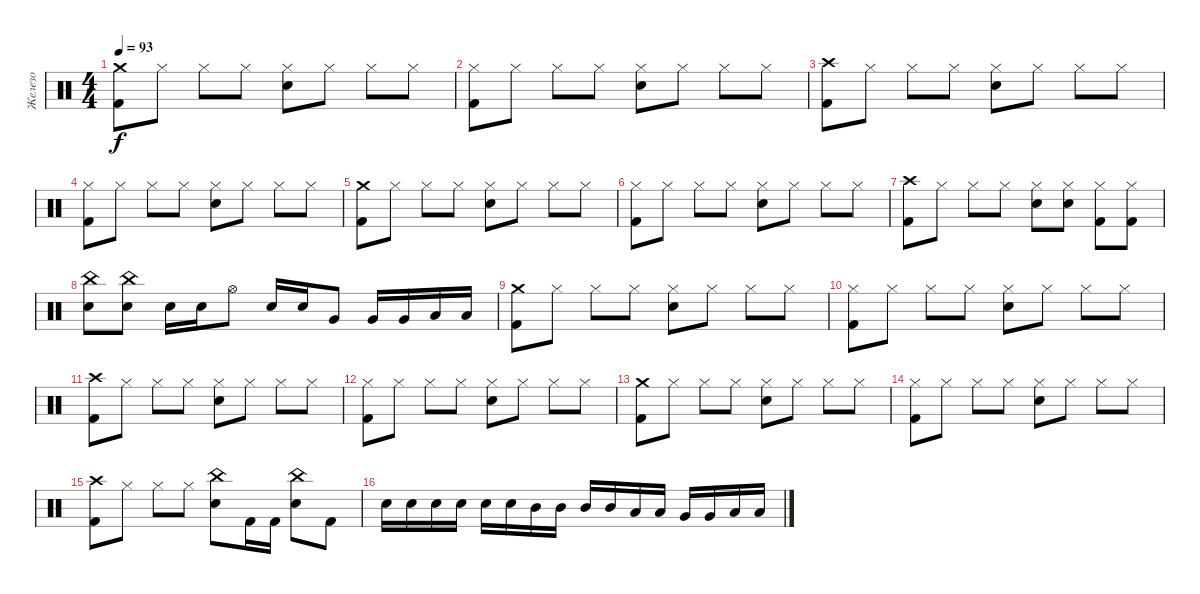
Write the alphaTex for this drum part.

\track ("Железо" "Железо") {instrument percussion}
\staff {score}
\articulation defaults
\ts (4 4)
\tempo 93
\clef neutral
\ks c
("Crash medium (hit)" "Kick (hit) 2").8{dy f} "Hi-Hat (closed)".8 "Hi-Hat (closed)".8 "Hi-Hat (closed)".8 ("Hi-Hat (closed)" "Electric Snare (hit)").8 "Hi-Hat (closed)".8 "Hi-Hat (closed)".8 "Hi-Hat (closed)".8 |
("Hi-Hat (closed)" "Kick (hit) 2").8 "Hi-Hat (closed)".8 "Hi-Hat (closed)".8 "Hi-Hat (closed)".8 ("Hi-Hat (closed)" "Electric Snare (hit)").8 "Hi-Hat (closed)".8 "Hi-Hat (closed)".8 "Hi-Hat (closed)".8 |
("Crash high (hit)" "Kick (hit) 2").8 "Hi-Hat (closed)".8 "Hi-Hat (closed)".8 "Hi-Hat (closed)".8 ("Hi-Hat (closed)" "Electric Snare (hit)").8 "Hi-Hat (closed)".8 "Hi-Hat (closed)".8 "Hi-Hat (closed)".8 |
("Hi-Hat (closed)" "Kick (hit) 2").8 "Hi-Hat (closed)".8 "Hi-Hat (closed)".8 "Hi-Hat (closed)".8 ("Hi-Hat (closed)" "Electric Snare (hit)").8 "Hi-Hat (closed)".8 "Hi-Hat (closed)".8 "Hi-Hat (closed)".8 |
("Crash medium (hit)" "Kick (hit) 2").8 "Hi-Hat (closed)".8 "Hi-Hat (closed)".8 "Hi-Hat (closed)".8 ("Hi-Hat (closed)" "Electric Snare (hit)").8 "Hi-Hat (closed)".8 "Hi-Hat (closed)".8 "Hi-Hat (closed)".8 |
("Hi-Hat (closed)" "Kick (hit) 2").8 "Hi-Hat (closed)".8 "Hi-Hat (closed)".8 "Hi-Hat (closed)".8 ("Hi-Hat (closed)" "Electric Snare (hit)").8 "Hi-Hat (closed)".8 "Hi-Hat (closed)".8 "Hi-Hat (closed)".8 |
("Crash high (hit)" "Kick (hit) 2").8 "Hi-Hat (closed)".8 "Hi-Hat (closed)".8 "Hi-Hat (closed)".8 ("Hi-Hat (closed)" "Electric Snare (hit)").8 ("Hi-Hat (closed)" "Electric Snare (hit)").8 ("Hi-Hat (closed)" "Kick (hit) 2").8 ("Hi-Hat (closed)" "Kick (hit) 2").8 |
("China (hit)" "Electric Snare (hit)").8 ("China (hit)" "Electric Snare (hit)").8 "Electric Snare (hit)".16 "Electric Snare (hit)".16 "Hi-Hat (open)".8 "Electric Snare (hit)".16 "Electric Snare (hit)".16 "Very Low Tom (hit)".8 "Very Low Tom (hit)".16 "Very Low Tom (hit)".16 "Low Floor Tom (hit)".16 "Low Floor Tom (hit)".16 |
("Crash medium (hit)" "Kick (hit) 2").8 "Hi-Hat (closed)".8 "Hi-Hat (closed)".8 "Hi-Hat (closed)".8 ("Hi-Hat (closed)" "Electric Snare (hit)").8 "Hi-Hat (closed)".8 "Hi-Hat (closed)".8 "Hi-Hat (closed)".8 |
("Hi-Hat (closed)" "Kick (hit) 2").8 "Hi-Hat (closed)".8 "Hi-Hat (closed)".8 "Hi-Hat (closed)".8 ("Hi-Hat (closed)" "Electric Snare (hit)").8 "Hi-Hat (closed)".8 "Hi-Hat (closed)".8 "Hi-Hat (closed)".8 |
("Crash high (hit)" "Kick (hit) 2").8 "Hi-Hat (closed)".8 "Hi-Hat (closed)".8 "Hi-Hat (closed)".8 ("Hi-Hat (closed)" "Electric Snare (hit)").8 "Hi-Hat (closed)".8 "Hi-Hat (closed)".8 "Hi-Hat (closed)".8 |
("Hi-Hat (closed)" "Kick (hit) 2").8 "Hi-Hat (closed)".8 "Hi-Hat (closed)".8 "Hi-Hat (closed)".8 ("Hi-Hat (closed)" "Electric Snare (hit)").8 "Hi-Hat (closed)".8 "Hi-Hat (closed)".8 "Hi-Hat (closed)".8 |
("Crash medium (hit)" "Kick (hit) 2").8 "Hi-Hat (closed)".8 "Hi-Hat (closed)".8 "Hi-Hat (closed)".8 ("Hi-Hat (closed)" "Electric Snare (hit)").8 "Hi-Hat (closed)".8 "Hi-Hat (closed)".8 "Hi-Hat (closed)".8 |
("Hi-Hat (closed)" "Kick (hit) 2").8 "Hi-Hat (closed)".8 "Hi-Hat (closed)".8 "Hi-Hat (closed)".8 ("Hi-Hat (closed)" "Electric Snare (hit)").8 "Hi-Hat (closed)".8 "Hi-Hat (closed)".8 "Hi-Hat (closed)".8 |
("Crash high (hit)" "Kick (hit) 2").8 "Hi-Hat (closed)".8 "Hi-Hat (closed)".8 "Hi-Hat (closed)".8 ("China (hit)" "Electric Snare (hit)").8 "Kick (hit) 2".16 "Kick (hit) 2".16 ("China (hit)" "Electric Snare (hit)").8 "Kick (hit) 2".8 |
"Electric Snare (hit)".16 "Electric Snare (hit)".16 "Electric Snare (hit)".16 "Electric Snare (hit)".16 "Electric Snare (hit)".16 "Electric Snare (hit)".16 "Mid Tom (hit)".16 "Mid Tom (hit)".16 "Mid Tom (hit)".16 "Mid Tom (hit)".16 "Low Tom (hit)".16 "Low Tom (hit)".16 "Very Low Tom (hit)".16 "Very Low Tom (hit)".16 "Low Floor Tom (hit)".16 "Low Floor Tom (hit)".16
